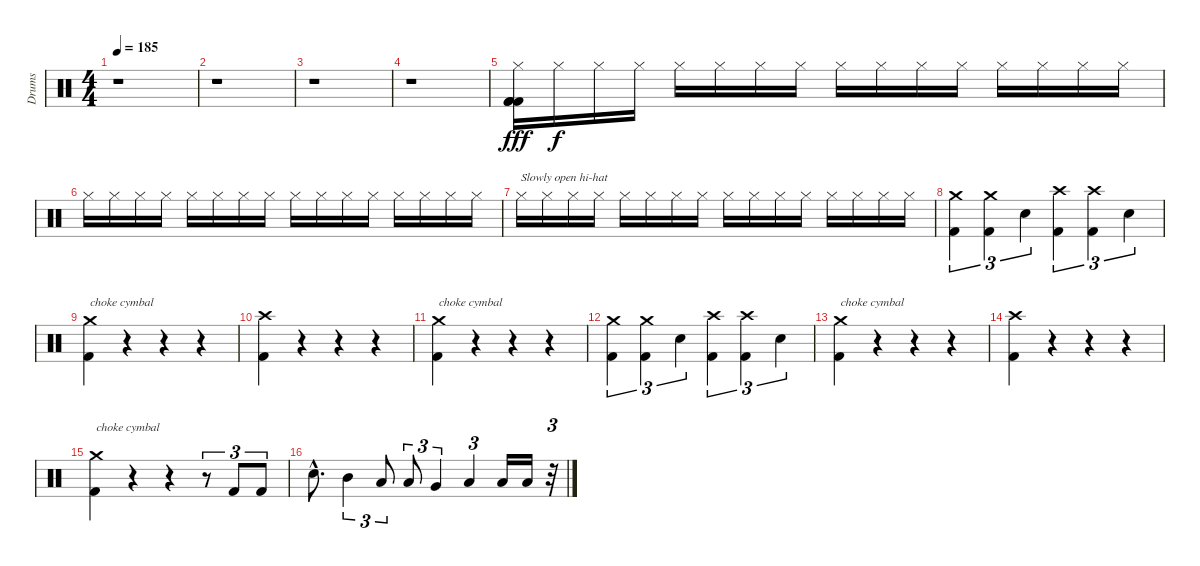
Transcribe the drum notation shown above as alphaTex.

\track ("Drums" "Drums") {instrument percussion}
\staff {score}
\articulation defaults
\ts (4 4)
\tempo 185
\clef neutral
\ks c
r.1{dy fff} |
r.1 |
r.1 |
r.1 |
("Hi-Hat (closed)" "Kick (hit) 2" "Kick (hit) 2" "Kick (hit) 2").16 "Hi-Hat (closed)".16{dy f} "Hi-Hat (closed)".16 "Hi-Hat (closed)".16 "Hi-Hat (closed)".16 "Hi-Hat (closed)".16 "Hi-Hat (closed)".16 "Hi-Hat (closed)".16 "Hi-Hat (closed)".16 "Hi-Hat (closed)".16 "Hi-Hat (closed)".16 "Hi-Hat (closed)".16 "Hi-Hat (closed)".16 "Hi-Hat (closed)".16 "Hi-Hat (closed)".16 "Hi-Hat (closed)".16 |
"Hi-Hat (closed)".16 "Hi-Hat (closed)".16 "Hi-Hat (closed)".16 "Hi-Hat (closed)".16 "Hi-Hat (closed)".16 "Hi-Hat (closed)".16 "Hi-Hat (closed)".16 "Hi-Hat (closed)".16 "Hi-Hat (closed)".16 "Hi-Hat (closed)".16 "Hi-Hat (closed)".16 "Hi-Hat (closed)".16 "Hi-Hat (closed)".16 "Hi-Hat (closed)".16 "Hi-Hat (closed)".16 "Hi-Hat (closed)".16 |
"Hi-Hat (closed)".16{txt "Slowly open hi-hat"} "Hi-Hat (closed)".16 "Hi-Hat (closed)".16 "Hi-Hat (closed)".16 "Hi-Hat (closed)".16 "Hi-Hat (closed)".16 "Hi-Hat (closed)".16 "Hi-Hat (closed)".16 "Hi-Hat (closed)".16 "Hi-Hat (closed)".16 "Hi-Hat (closed)".16 "Hi-Hat (closed)".16 "Hi-Hat (closed)".16 "Hi-Hat (closed)".16 "Hi-Hat (closed)".16 "Hi-Hat (closed)".16 |
("Crash medium (hit)" "Kick (hit) 2").4{tu (3 2)} ("Crash medium (hit)" "Kick (hit) 2").4{tu (3 2)} "Electric Snare (hit)".4{tu (3 2)} ("Crash high (hit)" "Kick (hit) 2").4{tu (3 2)} ("Crash high (hit)" "Kick (hit) 2").4{tu (3 2)} "Electric Snare (hit)".4{tu (3 2)} |
("Crash medium (hit)" "Kick (hit) 2").4{txt "choke cymbal"} r.4 r.4 r.4 |
("Crash high (hit)" "Kick (hit) 2").4 r.4 r.4 r.4 |
("Crash medium (hit)" "Kick (hit) 2").4{txt "choke cymbal"} r.4 r.4 r.4 |
("Crash medium (hit)" "Kick (hit) 2").4{tu (3 2)} ("Crash medium (hit)" "Kick (hit) 2").4{tu (3 2)} "Electric Snare (hit)".4{tu (3 2)} ("Crash high (hit)" "Kick (hit) 2").4{tu (3 2)} ("Crash high (hit)" "Kick (hit) 2").4{tu (3 2)} "Electric Snare (hit)".4{tu (3 2)} |
("Crash medium (hit)" "Kick (hit) 2").4{txt "choke cymbal"} r.4 r.4 r.4 |
("Crash high (hit)" "Kick (hit) 2").4 r.4 r.4 r.4 |
("Crash medium (hit)" "Kick (hit) 2").4{txt "choke cymbal"} r.4 r.4 r.8{tu (3 2)} "Kick (hit) 2".8{tu (3 2)} "Kick (hit) 2".8{tu (3 2)} |
"Electric Snare (hit)"{hac}.8{d} "Mid Tom (hit)".4{tu (3 2)} "Low Tom (hit)".8{tu (3 2)} "Low Tom (hit)".8{tu (3 2)} "Very Low Tom (hit)".4{tu (3 2)} "Low Floor Tom (hit)".4{tu (3 2)} "Low Floor Tom (hit)".16 "Low Floor Tom (hit)".16 r.32{tu (3 2)}
